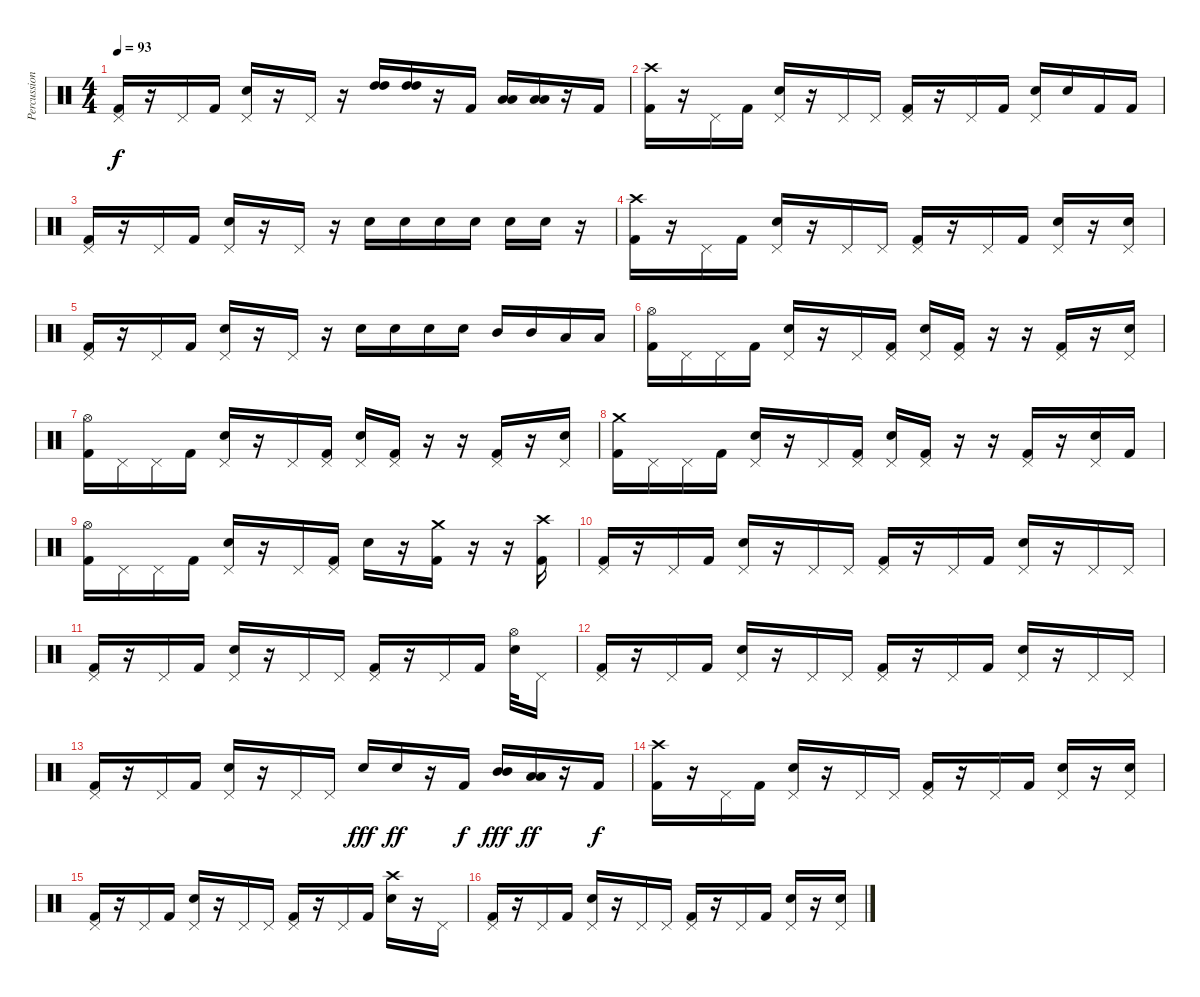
\track ("Percussion" "Percussion") {instrument percussion}
\staff {score}
\articulation defaults
\ts (4 4)
\tempo 93
\clef neutral
\ks c
("Pedal Hi-Hat (hit)" "Kick (hit) 2").16{dy f} r.16 "Pedal Hi-Hat (hit)".16 "Kick (hit) 2".16 ("Pedal Hi-Hat (hit)" "Snare (hit) 2").16 r.16 "Pedal Hi-Hat (hit)".16 r.16 ("High Tom (hit)" "High Tom (hit)").16 ("High Tom (hit)" "High Tom (hit)").16 r.16 "Kick (hit) 2".16 ("Low Tom (hit)" "Low Tom (hit)").16 ("Low Tom (hit)" "Low Tom (hit)").16 r.16 "Kick (hit) 2".16 |
("Crash high (hit)" "Kick (hit) 2").16 r.16 "Pedal Hi-Hat (hit)".16 "Kick (hit) 2".16 ("Pedal Hi-Hat (hit)" "Snare (hit) 2").16 r.16 "Pedal Hi-Hat (hit)".16 "Pedal Hi-Hat (hit)".16 ("Pedal Hi-Hat (hit)" "Kick (hit) 2").16 r.16 "Pedal Hi-Hat (hit)".16 "Kick (hit) 2".16 ("Pedal Hi-Hat (hit)" "Snare (hit) 2").16 "Snare (hit) 2".16 "Kick (hit) 2".16 "Kick (hit) 2".16 |
("Pedal Hi-Hat (hit)" "Kick (hit) 2").16 r.16 "Pedal Hi-Hat (hit)".16 "Kick (hit) 2".16 ("Pedal Hi-Hat (hit)" "Snare (hit) 2").16 r.16 "Pedal Hi-Hat (hit)".16 r.16 "Snare (hit) 2".16 "Snare (hit) 2".16 "Snare (hit) 2".16 "Snare (hit) 2".16 "Snare (hit) 2".16 "Snare (hit) 2".16 r.16 |
("Crash high (hit)" "Kick (hit) 2").16 r.16 "Pedal Hi-Hat (hit)".16 "Kick (hit) 2".16 ("Pedal Hi-Hat (hit)" "Snare (hit) 2").16 r.16 "Pedal Hi-Hat (hit)".16 "Pedal Hi-Hat (hit)".16 ("Pedal Hi-Hat (hit)" "Kick (hit) 2").16 r.16 "Pedal Hi-Hat (hit)".16 "Kick (hit) 2".16 ("Pedal Hi-Hat (hit)" "Snare (hit) 2").16 r.16 ("Pedal Hi-Hat (hit)" "Snare (hit) 2").16 |
("Pedal Hi-Hat (hit)" "Kick (hit) 2").16 r.16 "Pedal Hi-Hat (hit)".16 "Kick (hit) 2".16 ("Pedal Hi-Hat (hit)" "Snare (hit) 2").16 r.16 "Pedal Hi-Hat (hit)".16 r.16 "Snare (hit) 2".16 "Snare (hit) 2".16 "Snare (hit) 2".16 "Snare (hit) 2".16 "Mid Tom (hit)".16 "Mid Tom (hit)".16 "Low Tom (hit)".16 "Low Tom (hit)".16 |
("Hi-Hat (open)" "Kick (hit) 2").16 "Pedal Hi-Hat (hit)".16 "Pedal Hi-Hat (hit)".16 "Kick (hit) 2".16 ("Pedal Hi-Hat (hit)" "Snare (hit) 2").16 r.16 "Pedal Hi-Hat (hit)".16 ("Pedal Hi-Hat (hit)" "Kick (hit) 2").16 ("Pedal Hi-Hat (hit)" "Snare (hit) 2").16 ("Pedal Hi-Hat (hit)" "Kick (hit) 2").16 r.16 r.16 ("Pedal Hi-Hat (hit)" "Kick (hit) 2").16 r.16 ("Pedal Hi-Hat (hit)" "Snare (hit) 2").16 |
("Hi-Hat (open)" "Kick (hit) 2").16 "Pedal Hi-Hat (hit)".16 "Pedal Hi-Hat (hit)".16 "Kick (hit) 2".16 ("Pedal Hi-Hat (hit)" "Snare (hit) 2").16 r.16 "Pedal Hi-Hat (hit)".16 ("Pedal Hi-Hat (hit)" "Kick (hit) 2").16 ("Pedal Hi-Hat (hit)" "Snare (hit) 2").16 ("Pedal Hi-Hat (hit)" "Kick (hit) 2").16 r.16 r.16 ("Pedal Hi-Hat (hit)" "Kick (hit) 2").16 r.16 ("Pedal Hi-Hat (hit)" "Snare (hit) 2").16 |
("Crash medium (hit)" "Kick (hit) 2").16 "Pedal Hi-Hat (hit)".16 "Pedal Hi-Hat (hit)".16 "Kick (hit) 2".16 ("Pedal Hi-Hat (hit)" "Snare (hit) 2").16 r.16 "Pedal Hi-Hat (hit)".16 ("Pedal Hi-Hat (hit)" "Kick (hit) 2").16 ("Pedal Hi-Hat (hit)" "Snare (hit) 2").16 ("Pedal Hi-Hat (hit)" "Kick (hit) 2").16 r.16 r.16 ("Pedal Hi-Hat (hit)" "Kick (hit) 2").16 r.16 ("Pedal Hi-Hat (hit)" "Snare (hit) 2").16 "Kick (hit) 2".16 |
("Hi-Hat (open)" "Kick (hit) 2").16 "Pedal Hi-Hat (hit)".16 "Pedal Hi-Hat (hit)".16 "Kick (hit) 2".16 ("Pedal Hi-Hat (hit)" "Snare (hit) 2").16 r.16 "Pedal Hi-Hat (hit)".16 ("Pedal Hi-Hat (hit)" "Kick (hit) 2").16 "Snare (hit) 2".16 r.16 ("Crash medium (hit)" "Kick (hit) 2").16 r.16 r.16 ("Crash high (hit)" "Kick (hit) 2").16 |
("Pedal Hi-Hat (hit)" "Kick (hit) 2").16 r.16 "Pedal Hi-Hat (hit)".16 "Kick (hit) 2".16 ("Pedal Hi-Hat (hit)" "Snare (hit) 2").16 r.16 "Pedal Hi-Hat (hit)".16 "Pedal Hi-Hat (hit)".16 ("Pedal Hi-Hat (hit)" "Kick (hit) 2").16 r.16 "Pedal Hi-Hat (hit)".16 "Kick (hit) 2".16 ("Pedal Hi-Hat (hit)" "Snare (hit) 2").16 r.16 "Pedal Hi-Hat (hit)".16 "Pedal Hi-Hat (hit)".16 |
("Pedal Hi-Hat (hit)" "Kick (hit) 2").16 r.16 "Pedal Hi-Hat (hit)".16 "Kick (hit) 2".16 ("Pedal Hi-Hat (hit)" "Snare (hit) 2").16 r.16 "Pedal Hi-Hat (hit)".16 "Pedal Hi-Hat (hit)".16 ("Pedal Hi-Hat (hit)" "Kick (hit) 2").16 r.16 "Pedal Hi-Hat (hit)".16 "Kick (hit) 2".16 ("Hi-Hat (open)" "Snare (hit) 2").32 "Pedal Hi-Hat (hit)".16 |
("Pedal Hi-Hat (hit)" "Kick (hit) 2").16 r.16 "Pedal Hi-Hat (hit)".16 "Kick (hit) 2".16 ("Pedal Hi-Hat (hit)" "Snare (hit) 2").16 r.16 "Pedal Hi-Hat (hit)".16 "Pedal Hi-Hat (hit)".16 ("Pedal Hi-Hat (hit)" "Kick (hit) 2").16 r.16 "Pedal Hi-Hat (hit)".16 "Kick (hit) 2".16 ("Pedal Hi-Hat (hit)" "Snare (hit) 2").16 r.16 "Pedal Hi-Hat (hit)".16 "Pedal Hi-Hat (hit)".16 |
("Pedal Hi-Hat (hit)" "Kick (hit) 2").16 r.16 "Pedal Hi-Hat (hit)".16 "Kick (hit) 2".16 ("Pedal Hi-Hat (hit)" "Snare (hit) 2").16 r.16 "Pedal Hi-Hat (hit)".16 "Pedal Hi-Hat (hit)".16 "Snare (hit) 2".16{dy fff} "Snare (hit) 2".16{dy ff} r.16 "Kick (hit) 2".16{dy f} ("Mid Tom (hit)" "Mid Tom (hit)").16{dy fff} ("Low Tom (hit)" "Low Tom (hit)").16{dy ff} r.16 "Kick (hit) 2".16{dy f} |
("Crash high (hit)" "Kick (hit) 2").16 r.16 "Pedal Hi-Hat (hit)".16 "Kick (hit) 2".16 ("Pedal Hi-Hat (hit)" "Snare (hit) 2").16 r.16 "Pedal Hi-Hat (hit)".16 "Pedal Hi-Hat (hit)".16 ("Pedal Hi-Hat (hit)" "Kick (hit) 2").16 r.16 "Pedal Hi-Hat (hit)".16 "Kick (hit) 2".16 ("Pedal Hi-Hat (hit)" "Snare (hit) 2").16 r.16 ("Pedal Hi-Hat (hit)" "Snare (hit) 2").16 |
("Pedal Hi-Hat (hit)" "Kick (hit) 2").16 r.16 "Pedal Hi-Hat (hit)".16 "Kick (hit) 2".16 ("Pedal Hi-Hat (hit)" "Snare (hit) 2").16 r.16 "Pedal Hi-Hat (hit)".16 "Pedal Hi-Hat (hit)".16 ("Pedal Hi-Hat (hit)" "Kick (hit) 2").16 r.16 "Pedal Hi-Hat (hit)".16 "Kick (hit) 2".16 ("Crash high (hit)" "Snare (hit) 2").16 r.16 "Pedal Hi-Hat (hit)".16 |
("Pedal Hi-Hat (hit)" "Kick (hit) 2").16 r.16 "Pedal Hi-Hat (hit)".16 "Kick (hit) 2".16 ("Pedal Hi-Hat (hit)" "Snare (hit) 2").16 r.16 "Pedal Hi-Hat (hit)".16 "Pedal Hi-Hat (hit)".16 ("Pedal Hi-Hat (hit)" "Kick (hit) 2").16 r.16 "Pedal Hi-Hat (hit)".16 "Kick (hit) 2".16 ("Pedal Hi-Hat (hit)" "Snare (hit) 2").16 r.16 ("Pedal Hi-Hat (hit)" "Snare (hit) 2").16
